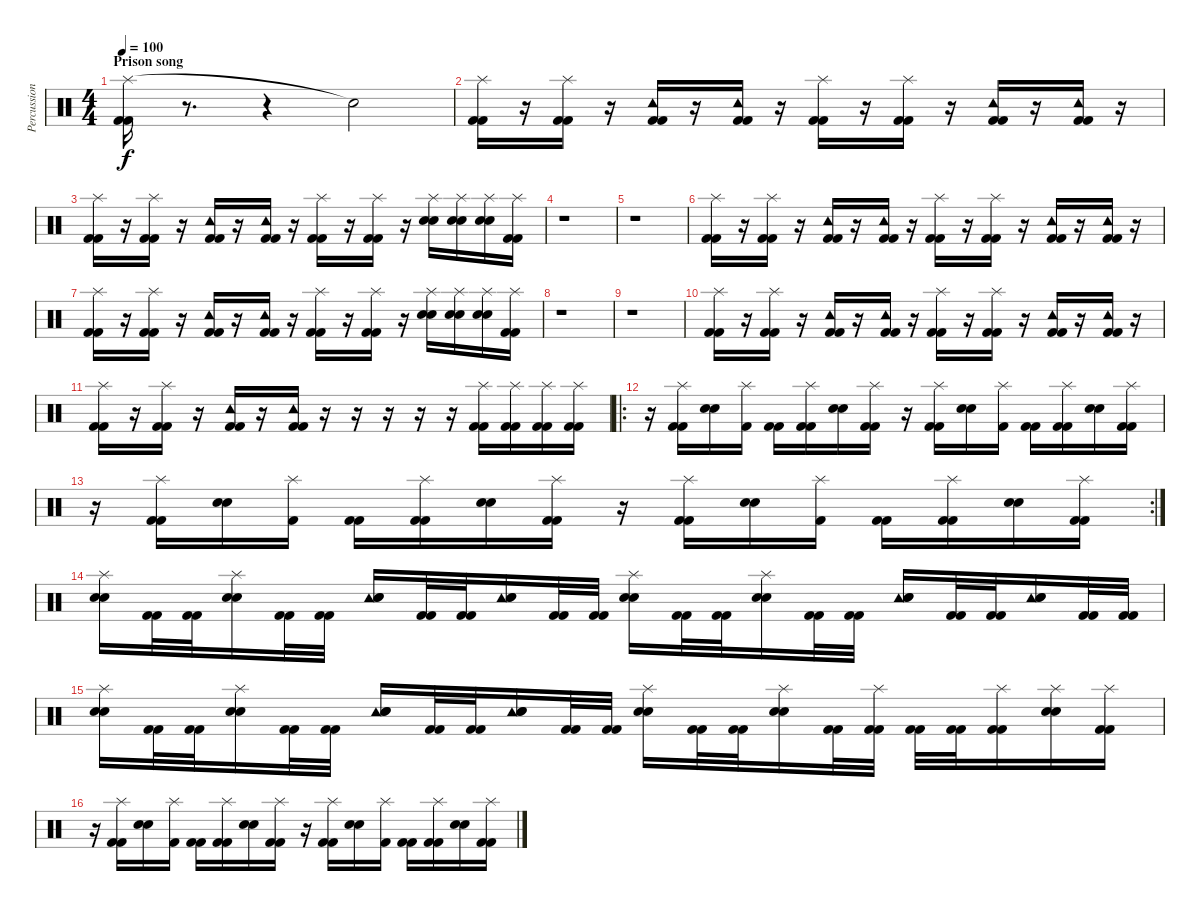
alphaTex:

\track ("Percussion Dolmayan" "Percussion") {instrument percussion}
\staff {score}
\articulation defaults
\ts (4 4)
\section ("" "Prison song")
\tempo 100
\clef neutral
\ks c
("Splash (hit)" "Kick (hit) 2" "Kick (hit) 2").16{dy f} r.8{d} r.4 "Snare (hit)"{t}.2 |
("Splash (hit)" "Kick (hit) 2" "Kick (hit) 2").16 r.16 ("Splash (hit)" "Kick (hit) 2" "Kick (hit) 2").16 r.16 ("Tambourine (hit)" "Kick (hit) 2" "Kick (hit) 2").16 r.16 ("Tambourine (hit)" "Kick (hit) 2" "Kick (hit) 2").16 r.16 ("Splash (hit)" "Kick (hit) 2" "Kick (hit) 2").16 r.16 ("Splash (hit)" "Kick (hit) 2" "Kick (hit) 2").16 r.16 ("Tambourine (hit)" "Kick (hit) 2" "Kick (hit) 2").16 r.16 ("Tambourine (hit)" "Kick (hit) 2" "Kick (hit) 2").16 r.16 |
("Splash (hit)" "Kick (hit) 2" "Kick (hit) 2").16 r.16 ("Splash (hit)" "Kick (hit) 2" "Kick (hit) 2").16 r.16 ("Tambourine (hit)" "Kick (hit) 2" "Kick (hit) 2").16 r.16 ("Tambourine (hit)" "Kick (hit) 2" "Kick (hit) 2").16 r.16 ("Splash (hit)" "Kick (hit) 2" "Kick (hit) 2").16 r.16 ("Splash (hit)" "Kick (hit) 2" "Kick (hit) 2").16 r.16 ("Splash (hit)" "Electric Snare (hit)" "Electric Snare (hit)").16 ("Splash (hit)" "Electric Snare (hit)" "Electric Snare (hit)").16 ("Splash (hit)" "Electric Snare (hit)" "Electric Snare (hit)").16 ("Splash (hit)" "Kick (hit) 2" "Kick (hit) 2").16 |
r.1 |
r.1 |
("Splash (hit)" "Kick (hit) 2" "Kick (hit) 2").16 r.16 ("Splash (hit)" "Kick (hit) 2" "Kick (hit) 2").16 r.16 ("Tambourine (hit)" "Kick (hit) 2" "Kick (hit) 2").16 r.16 ("Tambourine (hit)" "Kick (hit) 2" "Kick (hit) 2").16 r.16 ("Splash (hit)" "Kick (hit) 2" "Kick (hit) 2").16 r.16 ("Splash (hit)" "Kick (hit) 2" "Kick (hit) 2").16 r.16 ("Tambourine (hit)" "Kick (hit) 2" "Kick (hit) 2").16 r.16 ("Tambourine (hit)" "Kick (hit) 2" "Kick (hit) 2").16 r.16 |
("Splash (hit)" "Kick (hit) 2" "Kick (hit) 2").16 r.16 ("Splash (hit)" "Kick (hit) 2" "Kick (hit) 2").16 r.16 ("Tambourine (hit)" "Kick (hit) 2" "Kick (hit) 2").16 r.16 ("Tambourine (hit)" "Kick (hit) 2" "Kick (hit) 2").16 r.16 ("Splash (hit)" "Kick (hit) 2" "Kick (hit) 2").16 r.16 ("Splash (hit)" "Kick (hit) 2" "Kick (hit) 2").16 r.16 ("Splash (hit)" "Electric Snare (hit)" "Electric Snare (hit)").16 ("Splash (hit)" "Electric Snare (hit)" "Electric Snare (hit)").16 ("Splash (hit)" "Electric Snare (hit)" "Electric Snare (hit)").16 ("Splash (hit)" "Kick (hit) 2" "Kick (hit) 2").16 |
r.1 |
r.1 |
("Splash (hit)" "Kick (hit) 2" "Kick (hit) 2").16 r.16 ("Splash (hit)" "Kick (hit) 2" "Kick (hit) 2").16 r.16 ("Tambourine (hit)" "Kick (hit) 2" "Kick (hit) 2").16 r.16 ("Tambourine (hit)" "Kick (hit) 2" "Kick (hit) 2").16 r.16 ("Splash (hit)" "Kick (hit) 2" "Kick (hit) 2").16 r.16 ("Splash (hit)" "Kick (hit) 2" "Kick (hit) 2").16 r.16 ("Tambourine (hit)" "Kick (hit) 2" "Kick (hit) 2").16 r.16 ("Tambourine (hit)" "Kick (hit) 2" "Kick (hit) 2").16 r.16 |
("Splash (hit)" "Kick (hit) 2" "Kick (hit) 2").16 r.16 ("Splash (hit)" "Kick (hit) 2" "Kick (hit) 2").16 r.16 ("Tambourine (hit)" "Kick (hit) 2" "Kick (hit) 2").16 r.16 ("Tambourine (hit)" "Kick (hit) 2" "Kick (hit) 2").16 r.16 r.16 r.16 r.16 r.16 ("Splash (hit)" "Kick (hit) 2" "Kick (hit) 2").16 ("Splash (hit)" "Kick (hit) 2" "Kick (hit) 2").16 ("Splash (hit)" "Kick (hit) 2" "Kick (hit) 2").16 ("Splash (hit)" "Kick (hit) 2" "Kick (hit) 2").16 |
\ro
r.16 ("Splash (hit)" "Kick (hit) 2" "Kick (hit) 2").16 ("Electric Snare (hit)" "Electric Snare (hit)").16 ("Splash (hit)" "Kick (hit) 2").16 ("Kick (hit) 2" "Kick (hit) 2").16 ("Splash (hit)" "Kick (hit) 2" "Kick (hit) 2").16 ("Electric Snare (hit)" "Electric Snare (hit)").16 ("Splash (hit)" "Kick (hit) 2" "Kick (hit) 2").16 r.16 ("Splash (hit)" "Kick (hit) 2" "Kick (hit) 2").16 ("Electric Snare (hit)" "Electric Snare (hit)").16 ("Splash (hit)" "Kick (hit) 2").16 ("Kick (hit) 2" "Kick (hit) 2").16 ("Splash (hit)" "Kick (hit) 2" "Kick (hit) 2").16 ("Electric Snare (hit)" "Electric Snare (hit)").16 ("Splash (hit)" "Kick (hit) 2" "Kick (hit) 2").16 |
\rc 2
r.16 ("Splash (hit)" "Kick (hit) 2" "Kick (hit) 2").16 ("Electric Snare (hit)" "Electric Snare (hit)").16 ("Splash (hit)" "Kick (hit) 2").16 ("Kick (hit) 2" "Kick (hit) 2").16 ("Splash (hit)" "Kick (hit) 2" "Kick (hit) 2").16 ("Electric Snare (hit)" "Electric Snare (hit)").16 ("Splash (hit)" "Kick (hit) 2" "Kick (hit) 2").16 r.16 ("Splash (hit)" "Kick (hit) 2" "Kick (hit) 2").16 ("Electric Snare (hit)" "Electric Snare (hit)").16 ("Splash (hit)" "Kick (hit) 2").16 ("Kick (hit) 2" "Kick (hit) 2").16 ("Splash (hit)" "Kick (hit) 2" "Kick (hit) 2").16 ("Electric Snare (hit)" "Electric Snare (hit)").16 ("Splash (hit)" "Kick (hit) 2" "Kick (hit) 2").16 |
("Splash (hit)" "Electric Snare (hit)" "Electric Snare (hit)").16 ("Kick (hit) 2" "Kick (hit) 2").32 ("Kick (hit) 2" "Kick (hit) 2").32 ("Splash (hit)" "Electric Snare (hit)" "Electric Snare (hit)").16 ("Kick (hit) 2" "Kick (hit) 2").32 ("Kick (hit) 2" "Kick (hit) 2").32 ("Tambourine (hit)" "Electric Snare (hit)" "Electric Snare (hit)").16 ("Kick (hit) 2" "Kick (hit) 2").32 ("Kick (hit) 2" "Kick (hit) 2").32 ("Tambourine (hit)" "Electric Snare (hit)" "Electric Snare (hit)").16 ("Kick (hit) 2" "Kick (hit) 2").32 ("Kick (hit) 2" "Kick (hit) 2").32 ("Splash (hit)" "Electric Snare (hit)" "Electric Snare (hit)").16 ("Kick (hit) 2" "Kick (hit) 2").32 ("Kick (hit) 2" "Kick (hit) 2").32 ("Splash (hit)" "Electric Snare (hit)" "Electric Snare (hit)").16 ("Kick (hit) 2" "Kick (hit) 2").32 ("Kick (hit) 2" "Kick (hit) 2").32 ("Tambourine (hit)" "Electric Snare (hit)" "Electric Snare (hit)").16 ("Kick (hit) 2" "Kick (hit) 2").32 ("Kick (hit) 2" "Kick (hit) 2").32 ("Tambourine (hit)" "Electric Snare (hit)" "Electric Snare (hit)").16 ("Kick (hit) 2" "Kick (hit) 2").32 ("Kick (hit) 2" "Kick (hit) 2").32 |
("Splash (hit)" "Electric Snare (hit)" "Electric Snare (hit)").16 ("Kick (hit) 2" "Kick (hit) 2").32 ("Kick (hit) 2" "Kick (hit) 2").32 ("Splash (hit)" "Electric Snare (hit)" "Electric Snare (hit)").16 ("Kick (hit) 2" "Kick (hit) 2").32 ("Kick (hit) 2" "Kick (hit) 2").32 ("Tambourine (hit)" "Electric Snare (hit)" "Electric Snare (hit)").16 ("Kick (hit) 2" "Kick (hit) 2").32 ("Kick (hit) 2" "Kick (hit) 2").32 ("Tambourine (hit)" "Electric Snare (hit)" "Electric Snare (hit)").16 ("Kick (hit) 2" "Kick (hit) 2").32 ("Kick (hit) 2" "Kick (hit) 2").32 ("Splash (hit)" "Electric Snare (hit)" "Electric Snare (hit)").16 ("Kick (hit) 2" "Kick (hit) 2").32 ("Kick (hit) 2" "Kick (hit) 2").32 ("Splash (hit)" "Electric Snare (hit)" "Electric Snare (hit)").16 ("Kick (hit) 2" "Kick (hit) 2").32 ("Splash (hit)" "Kick (hit) 2" "Kick (hit) 2").32 ("Kick (hit) 2" "Kick (hit) 2").32 ("Kick (hit) 2" "Kick (hit) 2").32 ("Splash (hit)" "Kick (hit) 2" "Kick (hit) 2").16 ("Splash (hit)" "Electric Snare (hit)" "Electric Snare (hit)").16 ("Splash (hit)" "Kick (hit) 2" "Kick (hit) 2").16 |
r.16 ("Splash (hit)" "Kick (hit) 2" "Kick (hit) 2").16 ("Electric Snare (hit)" "Electric Snare (hit)").16 ("Splash (hit)" "Kick (hit) 2").16 ("Kick (hit) 2" "Kick (hit) 2").16 ("Splash (hit)" "Kick (hit) 2" "Kick (hit) 2").16 ("Electric Snare (hit)" "Electric Snare (hit)").16 ("Splash (hit)" "Kick (hit) 2" "Kick (hit) 2").16 r.16 ("Splash (hit)" "Kick (hit) 2" "Kick (hit) 2").16 ("Electric Snare (hit)" "Electric Snare (hit)").16 ("Splash (hit)" "Kick (hit) 2").16 ("Kick (hit) 2" "Kick (hit) 2").16 ("Splash (hit)" "Kick (hit) 2" "Kick (hit) 2").16 ("Electric Snare (hit)" "Electric Snare (hit)").16 ("Splash (hit)" "Kick (hit) 2" "Kick (hit) 2").16
